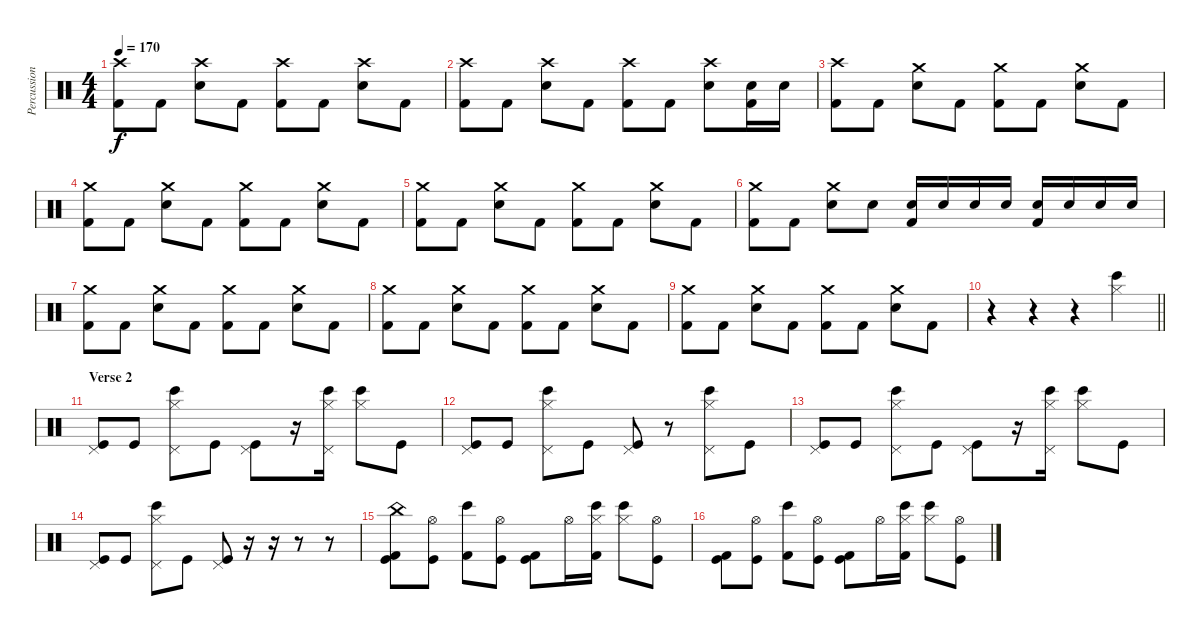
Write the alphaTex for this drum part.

\track ("Percussion" "Percussion") {instrument percussion}
\staff {score}
\articulation defaults
\ts (4 4)
\tempo 170
\clef neutral
\ks c
("Crash high (hit)" "Kick (hit) 2").8{dy f} "Kick (hit) 2".8 ("Crash high (hit)" "Electric Snare (hit)").8 "Kick (hit) 2".8 ("Crash high (hit)" "Kick (hit) 2").8 "Kick (hit) 2".8 ("Crash high (hit)" "Electric Snare (hit)").8 "Kick (hit) 2".8 |
("Crash high (hit)" "Kick (hit) 2").8 "Kick (hit) 2".8 ("Crash high (hit)" "Electric Snare (hit)").8 "Kick (hit) 2".8 ("Crash high (hit)" "Kick (hit) 2").8 "Kick (hit) 2".8 ("Crash high (hit)" "Electric Snare (hit)").8 ("Kick (hit) 2" "Electric Snare (hit)").16 "Electric Snare (hit)".16 |
("Crash high (hit)" "Kick (hit) 2").8 "Kick (hit) 2".8 ("Crash medium (hit)" "Electric Snare (hit)").8 "Kick (hit) 2".8 ("Crash medium (hit)" "Kick (hit) 2").8 "Kick (hit) 2".8 ("Crash medium (hit)" "Electric Snare (hit)").8 "Kick (hit) 2".8 |
("Crash medium (hit)" "Kick (hit) 2").8 "Kick (hit) 2".8 ("Crash medium (hit)" "Electric Snare (hit)").8 "Kick (hit) 2".8 ("Crash medium (hit)" "Kick (hit) 2").8 "Kick (hit) 2".8 ("Crash medium (hit)" "Electric Snare (hit)").8 "Kick (hit) 2".8 |
("Crash medium (hit)" "Kick (hit) 2").8 "Kick (hit) 2".8 ("Crash medium (hit)" "Electric Snare (hit)").8 "Kick (hit) 2".8 ("Crash medium (hit)" "Kick (hit) 2").8 "Kick (hit) 2".8 ("Crash medium (hit)" "Electric Snare (hit)").8 "Kick (hit) 2".8 |
("Crash medium (hit)" "Kick (hit) 2").8 "Kick (hit) 2".8 ("Crash medium (hit)" "Electric Snare (hit)").8 "Electric Snare (hit)".8 ("Electric Snare (hit)" "Kick (hit) 2").16 "Electric Snare (hit)".16 "Electric Snare (hit)".16 "Electric Snare (hit)".16 ("Electric Snare (hit)" "Kick (hit) 2").16 "Electric Snare (hit)".16 "Electric Snare (hit)".16 "Electric Snare (hit)".16 |
("Crash medium (hit)" "Kick (hit) 2").8 "Kick (hit) 2".8 ("Crash medium (hit)" "Electric Snare (hit)").8 "Kick (hit) 2".8 ("Crash medium (hit)" "Kick (hit) 2").8 "Kick (hit) 2".8 ("Crash medium (hit)" "Electric Snare (hit)").8 "Kick (hit) 2".8 |
("Crash medium (hit)" "Kick (hit) 2").8 "Kick (hit) 2".8 ("Crash medium (hit)" "Electric Snare (hit)").8 "Kick (hit) 2".8 ("Crash medium (hit)" "Kick (hit) 2").8 "Kick (hit) 2".8 ("Crash medium (hit)" "Electric Snare (hit)").8 "Kick (hit) 2".8 |
("Crash medium (hit)" "Kick (hit) 2").8 "Kick (hit) 2".8 ("Crash medium (hit)" "Electric Snare (hit)").8 "Kick (hit) 2".8 ("Crash medium (hit)" "Kick (hit) 2").8 "Kick (hit) 2".8 ("Crash medium (hit)" "Electric Snare (hit)").8 "Kick (hit) 2".8 |
\barLineRight lightlight
r.4 r.4 r.4 ("Bongo High (hit)" "Hi-Hat (closed)").4 |
\section ("" "Verse 2")
("Pedal Hi-Hat (hit)" "Kick (hit)").8 "Kick (hit)".8 ("Hi-Hat (closed)" "Bongo High (hit)" "Pedal Hi-Hat (hit)").8 "Kick (hit)".8 ("Kick (hit)" "Pedal Hi-Hat (hit)").8 r.16 ("Bongo High (hit)" "Hi-Hat (closed)" "Pedal Hi-Hat (hit)").16 ("Bongo High (hit)" "Hi-Hat (closed)").8 "Kick (hit)".8 |
("Pedal Hi-Hat (hit)" "Kick (hit)").8 "Kick (hit)".8 ("Hi-Hat (closed)" "Bongo High (hit)" "Pedal Hi-Hat (hit)").8 "Kick (hit)".8 ("Kick (hit)" "Pedal Hi-Hat (hit)").8 r.8 ("Bongo High (hit)" "Hi-Hat (closed)" "Pedal Hi-Hat (hit)").8 "Kick (hit)".8 |
("Pedal Hi-Hat (hit)" "Kick (hit)").8 "Kick (hit)".8 ("Hi-Hat (closed)" "Bongo High (hit)" "Pedal Hi-Hat (hit)").8 "Kick (hit)".8 ("Kick (hit)" "Pedal Hi-Hat (hit)").8 r.16 ("Bongo High (hit)" "Hi-Hat (closed)" "Pedal Hi-Hat (hit)").16 ("Bongo High (hit)" "Hi-Hat (closed)").8 "Kick (hit)".8 |
("Pedal Hi-Hat (hit)" "Kick (hit)").8 "Kick (hit)".8 ("Hi-Hat (closed)" "Bongo High (hit)" "Pedal Hi-Hat (hit)").8 "Kick (hit)".8 ("Kick (hit)" "Pedal Hi-Hat (hit)").8 r.16 r.16 r.8 r.8 |
("China (hit)" "Kick (hit)" "Kick (hit) 2").8 ("Hi-Hat (open)" "Kick (hit)").8 ("Bongo High (hit)" "Kick (hit) 2").8 ("Hi-Hat (open)" "Kick (hit)").8 ("Kick (hit)" "Kick (hit) 2").8 "Hi-Hat (open)".16 ("Bongo High (hit)" "Hi-Hat (closed)" "Kick (hit) 2").16 ("Bongo High (hit)" "Hi-Hat (closed)").8 ("Hi-Hat (open)" "Kick (hit)").8 |
("Kick (hit)" "Kick (hit) 2").8 ("Hi-Hat (open)" "Kick (hit)").8 ("Bongo High (hit)" "Kick (hit) 2").8 ("Hi-Hat (open)" "Kick (hit)").8 ("Kick (hit)" "Kick (hit) 2").8 "Hi-Hat (open)".16 ("Bongo High (hit)" "Hi-Hat (closed)" "Kick (hit) 2").16 ("Bongo High (hit)" "Hi-Hat (closed)").8 ("Hi-Hat (open)" "Kick (hit)").8
